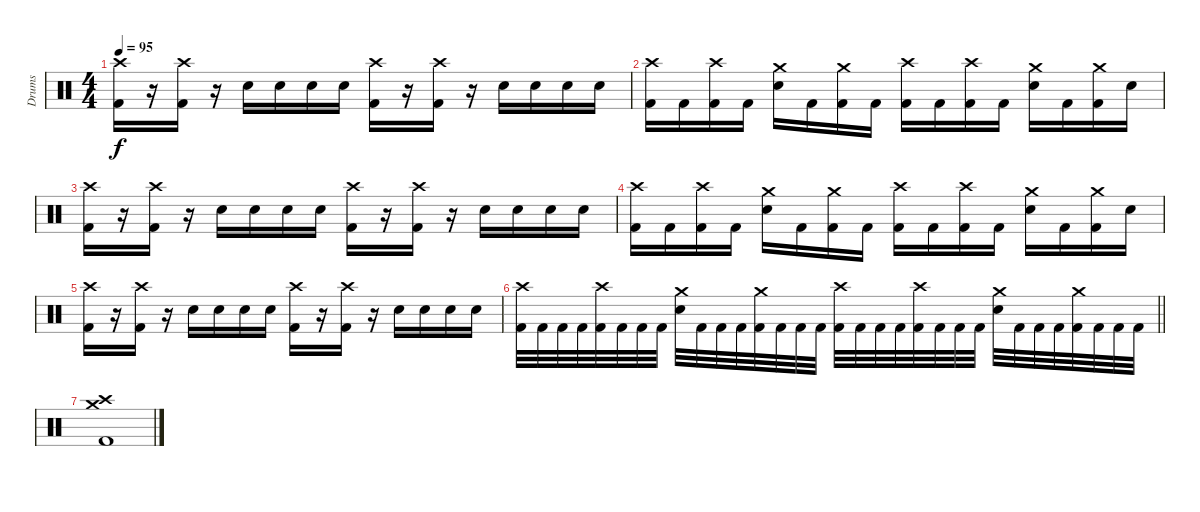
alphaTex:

\track ("Drums" "Drums") {instrument percussion}
\staff {score}
\articulation defaults
\ts (4 4)
\tempo 95
\clef neutral
\ks c
("Crash high (hit)" "Kick (hit) 2").16{dy f} r.16 ("Crash high (hit)" "Kick (hit) 2").16 r.16 "Electric Snare (hit)".16 "Electric Snare (hit)".16 "Electric Snare (hit)".16 "Electric Snare (hit)".16 ("Crash high (hit)" "Kick (hit) 2").16 r.16 ("Crash high (hit)" "Kick (hit) 2").16 r.16 "Electric Snare (hit)".16 "Electric Snare (hit)".16 "Electric Snare (hit)".16 "Electric Snare (hit)".16 |
("Crash high (hit)" "Kick (hit) 2").16 "Kick (hit) 2".16 ("Crash high (hit)" "Kick (hit) 2").16 "Kick (hit) 2".16 ("Crash medium (hit)" "Electric Snare (hit)").16 "Kick (hit) 2".16 ("Crash medium (hit)" "Kick (hit) 2").16 "Kick (hit) 2".16 ("Crash high (hit)" "Kick (hit) 2").16 "Kick (hit) 2".16 ("Crash high (hit)" "Kick (hit) 2").16 "Kick (hit) 2".16 ("Crash medium (hit)" "Electric Snare (hit)").16 "Kick (hit) 2".16 ("Crash medium (hit)" "Kick (hit) 2").16 "Electric Snare (hit)".16 |
("Crash high (hit)" "Kick (hit) 2").16 r.16 ("Crash high (hit)" "Kick (hit) 2").16 r.16 "Electric Snare (hit)".16 "Electric Snare (hit)".16 "Electric Snare (hit)".16 "Electric Snare (hit)".16 ("Crash high (hit)" "Kick (hit) 2").16 r.16 ("Crash high (hit)" "Kick (hit) 2").16 r.16 "Electric Snare (hit)".16 "Electric Snare (hit)".16 "Electric Snare (hit)".16 "Electric Snare (hit)".16 |
("Crash high (hit)" "Kick (hit) 2").16 "Kick (hit) 2".16 ("Crash high (hit)" "Kick (hit) 2").16 "Kick (hit) 2".16 ("Crash medium (hit)" "Electric Snare (hit)").16 "Kick (hit) 2".16 ("Crash medium (hit)" "Kick (hit) 2").16 "Kick (hit) 2".16 ("Crash high (hit)" "Kick (hit) 2").16 "Kick (hit) 2".16 ("Crash high (hit)" "Kick (hit) 2").16 "Kick (hit) 2".16 ("Crash medium (hit)" "Electric Snare (hit)").16 "Kick (hit) 2".16 ("Crash medium (hit)" "Kick (hit) 2").16 "Electric Snare (hit)".16 |
("Crash high (hit)" "Kick (hit) 2").16 r.16 ("Crash high (hit)" "Kick (hit) 2").16 r.16 "Electric Snare (hit)".16 "Electric Snare (hit)".16 "Electric Snare (hit)".16 "Electric Snare (hit)".16 ("Crash high (hit)" "Kick (hit) 2").16 r.16 ("Crash high (hit)" "Kick (hit) 2").16 r.16 "Electric Snare (hit)".16 "Electric Snare (hit)".16 "Electric Snare (hit)".16 "Electric Snare (hit)".16 |
\barLineRight lightlight
("Crash high (hit)" "Kick (hit) 2").32 "Kick (hit) 2".32 "Kick (hit) 2".32 "Kick (hit) 2".32 ("Crash high (hit)" "Kick (hit) 2").32 "Kick (hit) 2".32 "Kick (hit) 2".32 "Kick (hit) 2".32 ("Crash medium (hit)" "Electric Snare (hit)").32 "Kick (hit) 2".32 "Kick (hit) 2".32 "Kick (hit) 2".32 ("Crash medium (hit)" "Kick (hit) 2").32 "Kick (hit) 2".32 "Kick (hit) 2".32 "Kick (hit) 2".32 ("Crash high (hit)" "Kick (hit) 2").32 "Kick (hit) 2".32 "Kick (hit) 2".32 "Kick (hit) 2".32 ("Crash high (hit)" "Kick (hit) 2").32 "Kick (hit) 2".32 "Kick (hit) 2".32 "Kick (hit) 2".32 ("Crash medium (hit)" "Electric Snare (hit)").32 "Kick (hit) 2".32 "Kick (hit) 2".32 "Kick (hit) 2".32 ("Crash medium (hit)" "Kick (hit) 2").32 "Kick (hit) 2".32 "Kick (hit) 2".32 "Kick (hit) 2".32 |
("Crash high (hit)" "Crash medium (hit)" "Kick (hit) 2").1
